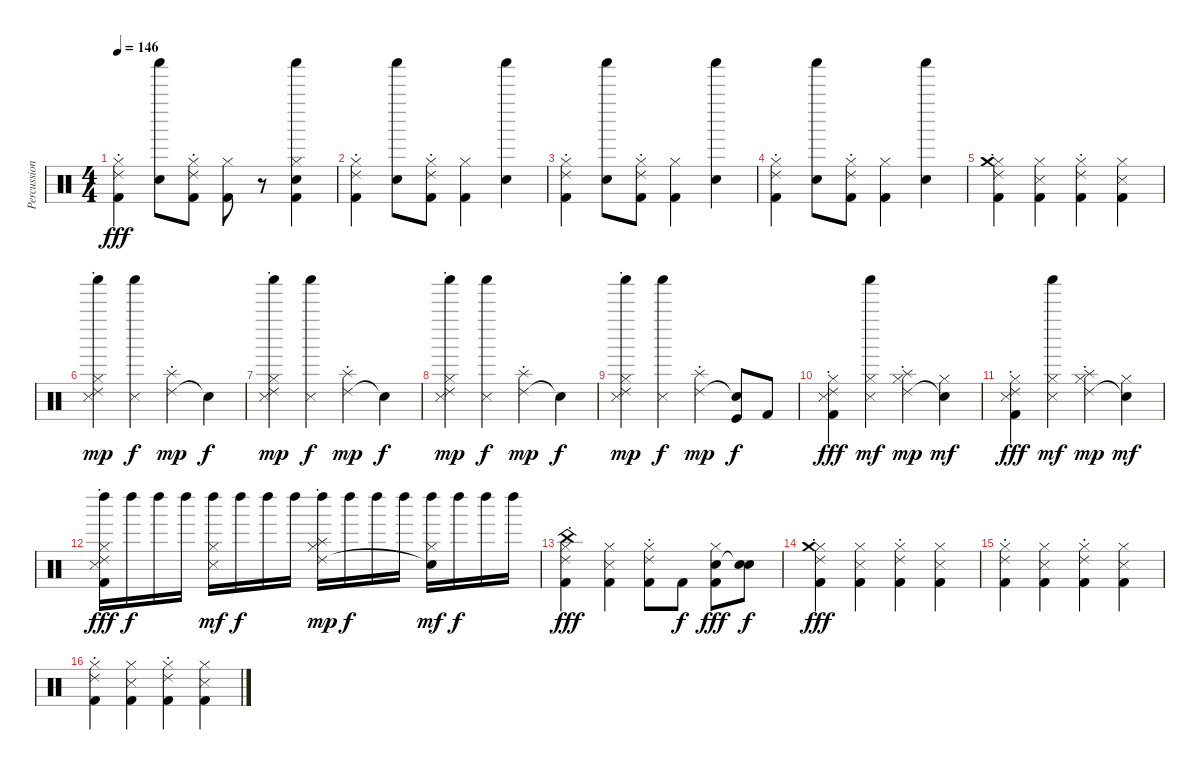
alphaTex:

\track ("Percussion" "Percussion") {instrument percussion}
\staff {score}
\articulation defaults
\ts (4 4)
\tempo 146
\clef neutral
\ks c
("Hi-Hat (closed)" "Ride (choke) 2" "Kick (hit) 2").4{dy fff} ("Hand Clap (hit)" "Shaker (hit)").8 ("Hi-Hat (closed)" "Ride (choke) 2" "Kick (hit) 2").8 ("Hi-Hat (closed)" "Kick (hit) 2").8 r.8 ("Hi-Hat (closed)" "Hand Clap (hit)" "Shaker (hit)" "Kick (hit) 2").4 |
("Hi-Hat (closed)" "Ride (choke) 2" "Kick (hit) 2").4 ("Hand Clap (hit)" "Shaker (hit)").8 ("Hi-Hat (closed)" "Ride (choke) 2" "Kick (hit) 2").8 ("Hi-Hat (closed)" "Kick (hit) 2").4 ("Hand Clap (hit)" "Shaker (hit)").4 |
("Hi-Hat (closed)" "Ride (choke) 2" "Kick (hit) 2").4 ("Hand Clap (hit)" "Shaker (hit)").8 ("Hi-Hat (closed)" "Ride (choke) 2" "Kick (hit) 2").8 ("Hi-Hat (closed)" "Kick (hit) 2").4 ("Hand Clap (hit)" "Shaker (hit)").4 |
("Hi-Hat (closed)" "Ride (choke) 2" "Kick (hit) 2").4 ("Hand Clap (hit)" "Shaker (hit)").8 ("Hi-Hat (closed)" "Ride (choke) 2" "Kick (hit) 2").8 ("Hi-Hat (closed)" "Kick (hit) 2").4 ("Hand Clap (hit)" "Shaker (hit)").4 |
("Hi-Hat (closed)" "Ride (choke) 2" "Crash medium (hit)" "Kick (hit) 2").4 ("Hi-Hat (closed)" "Metronome (hit)" "Kick (hit) 2").4 ("Hi-Hat (closed)" "Ride (choke) 2" "Kick (hit) 2").4 ("Hi-Hat (closed)" "Metronome (hit)" "Kick (hit) 2").4 |
("Hi-Hat (closed)" "Ride (choke) 2" "Metronome (hit)" "Shaker (hit)").4{dy mp} ("Metronome (hit)" "Shaker (hit)").4{dy f} ("Ride (choke) 2" "Splash (hit)").4{dy mp} "Snare (hit)"{t}.4{dy f} |
("Hi-Hat (closed)" "Ride (choke) 2" "Metronome (hit)" "Shaker (hit)").4{dy mp} ("Metronome (hit)" "Shaker (hit)").4{dy f} ("Ride (choke) 2" "Splash (hit)").4{dy mp} "Snare (hit)"{t}.4{dy f} |
("Hi-Hat (closed)" "Ride (choke) 2" "Metronome (hit)" "Shaker (hit)").4{dy mp} ("Metronome (hit)" "Shaker (hit)").4{dy f} ("Ride (choke) 2" "Splash (hit)").4{dy mp} "Snare (hit)"{t}.4{dy f} |
("Hi-Hat (closed)" "Ride (choke) 2" "Metronome (hit)" "Shaker (hit)").4{dy mp} ("Metronome (hit)" "Shaker (hit)").4{dy f} ("Ride (choke) 2" "Splash (hit)").4{dy mp} ("Snare (hit)"{t} "Kick (hit)").8{dy f} "Kick (hit) 2".8 |
("Hi-Hat (closed)" "Ride (choke) 2" "Metronome (hit)" "Kick (hit) 2").4{dy fff} ("Hi-Hat (closed)" "Metronome (hit)" "Shaker (hit)").4{dy mf} ("Hi-Hat (closed)" "Ride (choke) 2" "Splash (hit)").4{dy mp} ("Hi-Hat (closed)" "Snare (hit)"{t}).4{dy mf} |
("Hi-Hat (closed)" "Ride (choke) 2" "Metronome (hit)" "Kick (hit) 2").4{dy fff} ("Hi-Hat (closed)" "Metronome (hit)" "Shaker (hit)").4{dy mf} ("Hi-Hat (closed)" "Ride (choke) 2" "Splash (hit)").4{dy mp} ("Hi-Hat (closed)" "Snare (hit)"{t}).4{dy mf} |
("Hi-Hat (closed)" "Ride (choke) 2" "Metronome (hit)" "Left Maraca (hit)" "Kick (hit) 2").16{dy fff} "Left Maraca (hit)".16{dy f} "Left Maraca (hit)".16 "Left Maraca (hit)".16 ("Hi-Hat (closed)" "Metronome (hit)" "Left Maraca (hit)").16{dy mf} "Left Maraca (hit)".16{dy f} "Left Maraca (hit)".16 "Left Maraca (hit)".16 ("Hi-Hat (closed)" "Ride (choke) 2" "Splash (hit)" "Left Maraca (hit)").16{dy mp} "Left Maraca (hit)".16{dy f} "Left Maraca (hit)".16 "Left Maraca (hit)".16 ("Hi-Hat (closed)" "Snare (hit)"{t} "Left Maraca (hit)").16{dy mf} "Left Maraca (hit)".16{dy f} "Left Maraca (hit)".16 "Left Maraca (hit)".16 |
("Hi-Hat (closed)" "Ride (choke) 2" "China (hit)" "Kick (hit) 2").4{dy fff} ("Hi-Hat (closed)" "Metronome (hit)" "Kick (hit) 2").4 ("Hi-Hat (closed)" "Ride (choke) 2" "Kick (hit) 2").8 "Kick (hit) 2".8{dy f} ("Hi-Hat (closed)" "Hand Clap (hit)" "Kick (hit) 2").8{dy fff} ("Hand Clap (hit)" "Snare (hit)"{t}).8{dy f} |
("Hi-Hat (closed)" "Ride (choke) 2" "Crash medium (hit)" "Kick (hit) 2").4{dy fff} ("Hi-Hat (closed)" "Metronome (hit)" "Kick (hit) 2").4 ("Hi-Hat (closed)" "Ride (choke) 2" "Kick (hit) 2").4 ("Hi-Hat (closed)" "Metronome (hit)" "Kick (hit) 2").4 |
("Hi-Hat (closed)" "Ride (choke) 2" "Kick (hit) 2").4 ("Hi-Hat (closed)" "Metronome (hit)" "Kick (hit) 2").4 ("Hi-Hat (closed)" "Ride (choke) 2" "Kick (hit) 2").4 ("Hi-Hat (closed)" "Metronome (hit)" "Kick (hit) 2").4 |
("Hi-Hat (closed)" "Ride (choke) 2" "Kick (hit) 2").4 ("Hi-Hat (closed)" "Metronome (hit)" "Kick (hit) 2").4 ("Hi-Hat (closed)" "Ride (choke) 2" "Kick (hit) 2").4 ("Hi-Hat (closed)" "Metronome (hit)" "Kick (hit) 2").4
